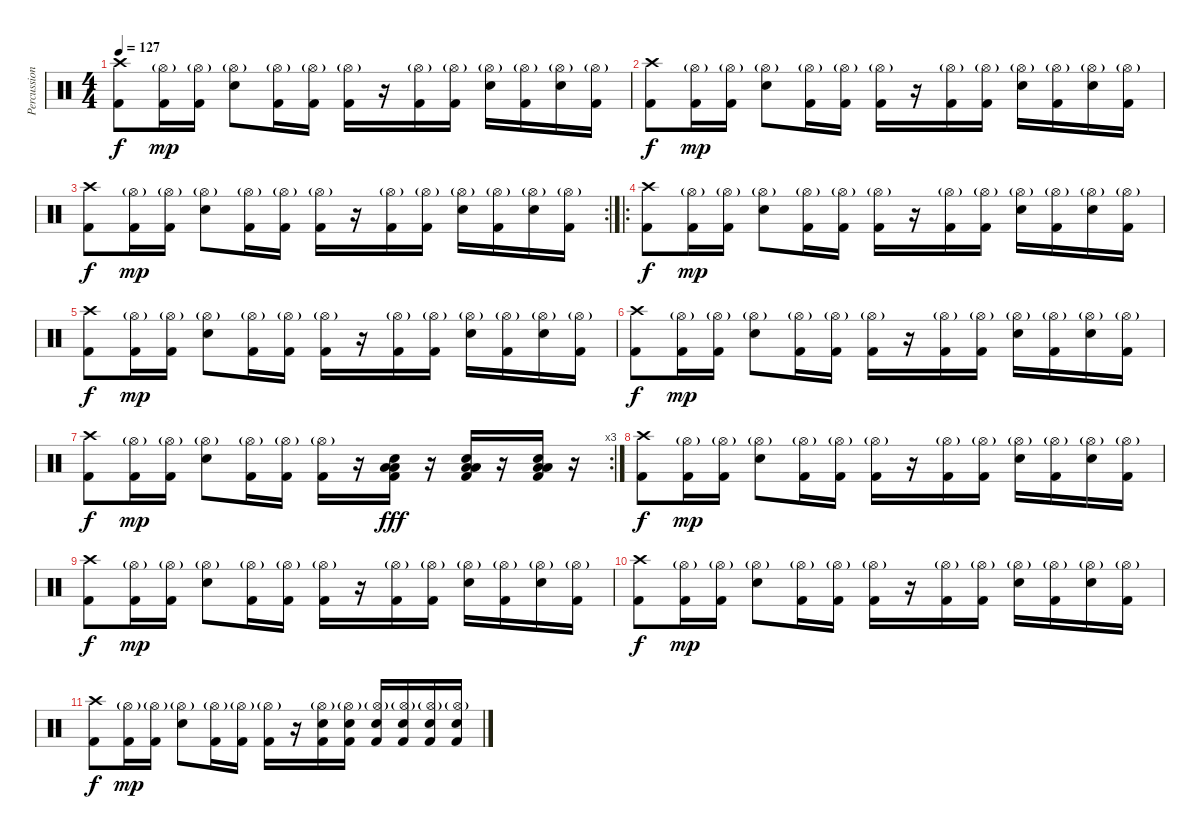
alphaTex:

\track ("Percussions" "Percussion") {instrument percussion}
\staff {score}
\articulation defaults
\ts (4 4)
\tempo 127
\clef neutral
\ks c
("Crash high (hit)" "Kick (hit) 2").8{dy f} ("Hi-Hat (open)"{g} "Kick (hit) 2").16{dy mp} ("Hi-Hat (open)"{g} "Kick (hit) 2").16 ("Hi-Hat (open)"{g} "Electric Snare (hit)").8 ("Hi-Hat (open)"{g} "Kick (hit) 2").16 ("Hi-Hat (open)"{g} "Kick (hit) 2").16 ("Hi-Hat (open)"{g} "Kick (hit) 2").16 r.16 ("Hi-Hat (open)"{g} "Kick (hit) 2").16 ("Hi-Hat (open)"{g} "Kick (hit) 2").16 ("Hi-Hat (open)"{g} "Electric Snare (hit)").16 ("Hi-Hat (open)"{g} "Kick (hit) 2").16 ("Hi-Hat (open)"{g} "Electric Snare (hit)").16 ("Hi-Hat (open)"{g} "Kick (hit) 2").16 |
("Crash high (hit)" "Kick (hit) 2").8{dy f} ("Hi-Hat (open)"{g} "Kick (hit) 2").16{dy mp} ("Hi-Hat (open)"{g} "Kick (hit) 2").16 ("Hi-Hat (open)"{g} "Electric Snare (hit)").8 ("Hi-Hat (open)"{g} "Kick (hit) 2").16 ("Hi-Hat (open)"{g} "Kick (hit) 2").16 ("Hi-Hat (open)"{g} "Kick (hit) 2").16 r.16 ("Hi-Hat (open)"{g} "Kick (hit) 2").16 ("Hi-Hat (open)"{g} "Kick (hit) 2").16 ("Hi-Hat (open)"{g} "Electric Snare (hit)").16 ("Hi-Hat (open)"{g} "Kick (hit) 2").16 ("Hi-Hat (open)"{g} "Electric Snare (hit)").16 ("Hi-Hat (open)"{g} "Kick (hit) 2").16 |
\rc 2
("Crash high (hit)" "Kick (hit) 2").8{dy f} ("Hi-Hat (open)"{g} "Kick (hit) 2").16{dy mp} ("Hi-Hat (open)"{g} "Kick (hit) 2").16 ("Hi-Hat (open)"{g} "Electric Snare (hit)").8 ("Hi-Hat (open)"{g} "Kick (hit) 2").16 ("Hi-Hat (open)"{g} "Kick (hit) 2").16 ("Hi-Hat (open)"{g} "Kick (hit) 2").16 r.16 ("Hi-Hat (open)"{g} "Kick (hit) 2").16 ("Hi-Hat (open)"{g} "Kick (hit) 2").16 ("Hi-Hat (open)"{g} "Electric Snare (hit)").16 ("Hi-Hat (open)"{g} "Kick (hit) 2").16 ("Hi-Hat (open)"{g} "Electric Snare (hit)").16 ("Hi-Hat (open)"{g} "Kick (hit) 2").16 |
\ro
("Crash high (hit)" "Kick (hit) 2").8{dy f} ("Hi-Hat (open)"{g} "Kick (hit) 2").16{dy mp} ("Hi-Hat (open)"{g} "Kick (hit) 2").16 ("Hi-Hat (open)"{g} "Electric Snare (hit)").8 ("Hi-Hat (open)"{g} "Kick (hit) 2").16 ("Hi-Hat (open)"{g} "Kick (hit) 2").16 ("Hi-Hat (open)"{g} "Kick (hit) 2").16 r.16 ("Hi-Hat (open)"{g} "Kick (hit) 2").16 ("Hi-Hat (open)"{g} "Kick (hit) 2").16 ("Hi-Hat (open)"{g} "Electric Snare (hit)").16 ("Hi-Hat (open)"{g} "Kick (hit) 2").16 ("Hi-Hat (open)"{g} "Electric Snare (hit)").16 ("Hi-Hat (open)"{g} "Kick (hit) 2").16 |
("Crash high (hit)" "Kick (hit) 2").8{dy f} ("Hi-Hat (open)"{g} "Kick (hit) 2").16{dy mp} ("Hi-Hat (open)"{g} "Kick (hit) 2").16 ("Hi-Hat (open)"{g} "Electric Snare (hit)").8 ("Hi-Hat (open)"{g} "Kick (hit) 2").16 ("Hi-Hat (open)"{g} "Kick (hit) 2").16 ("Hi-Hat (open)"{g} "Kick (hit) 2").16 r.16 ("Hi-Hat (open)"{g} "Kick (hit) 2").16 ("Hi-Hat (open)"{g} "Kick (hit) 2").16 ("Hi-Hat (open)"{g} "Electric Snare (hit)").16 ("Hi-Hat (open)"{g} "Kick (hit) 2").16 ("Hi-Hat (open)"{g} "Electric Snare (hit)").16 ("Hi-Hat (open)"{g} "Kick (hit) 2").16 |
("Crash high (hit)" "Kick (hit) 2").8{dy f} ("Hi-Hat (open)"{g} "Kick (hit) 2").16{dy mp} ("Hi-Hat (open)"{g} "Kick (hit) 2").16 ("Hi-Hat (open)"{g} "Electric Snare (hit)").8 ("Hi-Hat (open)"{g} "Kick (hit) 2").16 ("Hi-Hat (open)"{g} "Kick (hit) 2").16 ("Hi-Hat (open)"{g} "Kick (hit) 2").16 r.16 ("Hi-Hat (open)"{g} "Kick (hit) 2").16 ("Hi-Hat (open)"{g} "Kick (hit) 2").16 ("Hi-Hat (open)"{g} "Electric Snare (hit)").16 ("Hi-Hat (open)"{g} "Kick (hit) 2").16 ("Hi-Hat (open)"{g} "Electric Snare (hit)").16 ("Hi-Hat (open)"{g} "Kick (hit) 2").16 |
\rc 3
("Crash high (hit)" "Kick (hit) 2").8{dy f} ("Hi-Hat (open)"{g} "Kick (hit) 2").16{dy mp} ("Hi-Hat (open)"{g} "Kick (hit) 2").16 ("Hi-Hat (open)"{g} "Electric Snare (hit)").8 ("Hi-Hat (open)"{g} "Kick (hit) 2").16 ("Hi-Hat (open)"{g} "Kick (hit) 2").16 ("Hi-Hat (open)"{g} "Kick (hit) 2").16 r.16 ("Low Floor Tom (hit)" "Low Floor Tom (hit)" "Kick (hit) 2" "Electric Snare (hit)").16{dy fff} r.16 ("Low Floor Tom (hit)" "Low Floor Tom (hit)" "Kick (hit) 2" "Electric Snare (hit)").16 r.16 ("Low Floor Tom (hit)" "Low Floor Tom (hit)" "Kick (hit) 2" "Electric Snare (hit)").16 r.16 |
("Crash high (hit)" "Kick (hit) 2").8{dy f} ("Hi-Hat (open)"{g} "Kick (hit) 2").16{dy mp} ("Hi-Hat (open)"{g} "Kick (hit) 2").16 ("Hi-Hat (open)"{g} "Electric Snare (hit)").8 ("Hi-Hat (open)"{g} "Kick (hit) 2").16 ("Hi-Hat (open)"{g} "Kick (hit) 2").16 ("Hi-Hat (open)"{g} "Kick (hit) 2").16 r.16 ("Hi-Hat (open)"{g} "Kick (hit) 2").16 ("Hi-Hat (open)"{g} "Kick (hit) 2").16 ("Hi-Hat (open)"{g} "Electric Snare (hit)").16 ("Hi-Hat (open)"{g} "Kick (hit) 2").16 ("Hi-Hat (open)"{g} "Electric Snare (hit)").16 ("Hi-Hat (open)"{g} "Kick (hit) 2").16 |
("Crash high (hit)" "Kick (hit) 2").8{dy f} ("Hi-Hat (open)"{g} "Kick (hit) 2").16{dy mp} ("Hi-Hat (open)"{g} "Kick (hit) 2").16 ("Hi-Hat (open)"{g} "Electric Snare (hit)").8 ("Hi-Hat (open)"{g} "Kick (hit) 2").16 ("Hi-Hat (open)"{g} "Kick (hit) 2").16 ("Hi-Hat (open)"{g} "Kick (hit) 2").16 r.16 ("Hi-Hat (open)"{g} "Kick (hit) 2").16 ("Hi-Hat (open)"{g} "Kick (hit) 2").16 ("Hi-Hat (open)"{g} "Electric Snare (hit)").16 ("Hi-Hat (open)"{g} "Kick (hit) 2").16 ("Hi-Hat (open)"{g} "Electric Snare (hit)").16 ("Hi-Hat (open)"{g} "Kick (hit) 2").16 |
("Crash high (hit)" "Kick (hit) 2").8{dy f} ("Hi-Hat (open)"{g} "Kick (hit) 2").16{dy mp} ("Hi-Hat (open)"{g} "Kick (hit) 2").16 ("Hi-Hat (open)"{g} "Electric Snare (hit)").8 ("Hi-Hat (open)"{g} "Kick (hit) 2").16 ("Hi-Hat (open)"{g} "Kick (hit) 2").16 ("Hi-Hat (open)"{g} "Kick (hit) 2").16 r.16 ("Hi-Hat (open)"{g} "Kick (hit) 2").16 ("Hi-Hat (open)"{g} "Kick (hit) 2").16 ("Hi-Hat (open)"{g} "Electric Snare (hit)").16 ("Hi-Hat (open)"{g} "Kick (hit) 2").16 ("Hi-Hat (open)"{g} "Electric Snare (hit)").16 ("Hi-Hat (open)"{g} "Kick (hit) 2").16 |
("Crash high (hit)" "Kick (hit) 2").8{dy f} ("Hi-Hat (open)"{g} "Kick (hit) 2").16{dy mp} ("Hi-Hat (open)"{g} "Kick (hit) 2").16 ("Hi-Hat (open)"{g} "Electric Snare (hit)").8 ("Hi-Hat (open)"{g} "Kick (hit) 2").16 ("Hi-Hat (open)"{g} "Kick (hit) 2").16 ("Hi-Hat (open)"{g} "Kick (hit) 2").16 r.16 ("Hi-Hat (open)"{g} "Kick (hit) 2" "Electric Snare (hit)").16 ("Hi-Hat (open)"{g} "Kick (hit) 2" "Electric Snare (hit)").16 ("Hi-Hat (open)"{g} "Kick (hit) 2" "Electric Snare (hit)").16 ("Hi-Hat (open)"{g} "Kick (hit) 2" "Electric Snare (hit)").16 ("Hi-Hat (open)"{g} "Kick (hit) 2" "Electric Snare (hit)").16 ("Hi-Hat (open)"{g} "Kick (hit) 2" "Electric Snare (hit)").16
